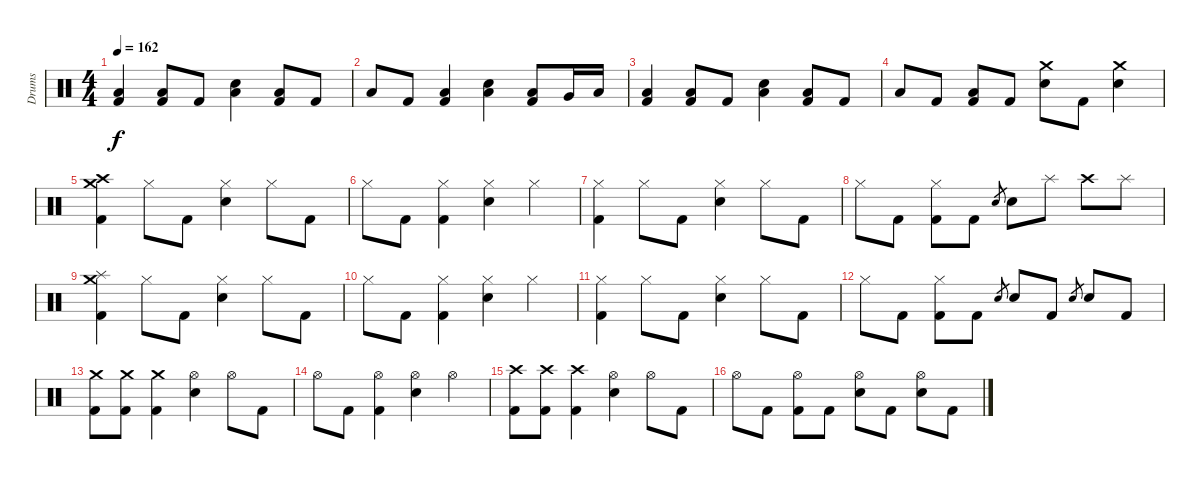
\track ("Drums" "Drums") {instrument percussion}
\staff {score}
\articulation defaults
\ts (4 4)
\tempo 162
\clef neutral
\ks c
("Low Floor Tom (hit)" "Kick (hit) 2").4{dy f} ("Low Floor Tom (hit)" "Kick (hit) 2").8 "Kick (hit) 2".8 ("Low Floor Tom (hit)" "Electric Snare (hit)").4 ("Low Floor Tom (hit)" "Kick (hit) 2").8 "Kick (hit) 2".8 |
"Low Floor Tom (hit)".8 "Kick (hit) 2".8 ("Low Floor Tom (hit)" "Kick (hit) 2").4 ("Low Floor Tom (hit)" "Electric Snare (hit)").4 ("Low Tom (hit)" "Kick (hit) 2").8 "Very Low Tom (hit)".16 "Low Floor Tom (hit)".16 |
("Low Floor Tom (hit)" "Kick (hit) 2").4 ("Low Floor Tom (hit)" "Kick (hit) 2").8 "Kick (hit) 2".8 ("Low Floor Tom (hit)" "Electric Snare (hit)").4 ("Low Floor Tom (hit)" "Kick (hit) 2").8 "Kick (hit) 2".8 |
"Low Floor Tom (hit)".8 "Kick (hit) 2".8 ("Low Floor Tom (hit)" "Kick (hit) 2").8 "Kick (hit) 2".8 ("Crash medium (hit)" "Electric Snare (hit)").8 "Kick (hit) 2".8 ("Crash medium (hit)" "Electric Snare (hit)").4 |
("Crash medium (hit)" "Crash high (hit)" "Kick (hit) 2").4 "Hi-Hat (closed)".8 "Kick (hit) 2".8 ("Hi-Hat (closed)" "Electric Snare (hit)").4 "Hi-Hat (closed)".8 "Kick (hit) 2".8 |
"Hi-Hat (closed)".8 "Kick (hit) 2".8 ("Hi-Hat (closed)" "Kick (hit) 2").4 ("Hi-Hat (closed)" "Electric Snare (hit)").4 "Hi-Hat (closed)".4 |
("Hi-Hat (closed)" "Kick (hit) 2").4 "Hi-Hat (closed)".8 "Kick (hit) 2".8 ("Hi-Hat (closed)" "Electric Snare (hit)").4 "Hi-Hat (closed)".8 "Kick (hit) 2".8 |
"Hi-Hat (closed)".8 "Kick (hit) 2".8 ("Hi-Hat (closed)" "Kick (hit) 2").8 "Kick (hit) 2".8 "Electric Snare (hit)".8{gr} "Electric Snare (hit)".8 "Splash (hit)".8 "Crash high (hit)".8 "Splash (hit)".8 |
("Crash medium (hit)" "Splash (hit)" "Kick (hit) 2").4 "Hi-Hat (closed)".8 "Kick (hit) 2".8 ("Hi-Hat (closed)" "Electric Snare (hit)").4 "Hi-Hat (closed)".8 "Kick (hit) 2".8 |
"Hi-Hat (closed)".8 "Kick (hit) 2".8 ("Hi-Hat (closed)" "Kick (hit) 2").4 ("Hi-Hat (closed)" "Electric Snare (hit)").4 "Hi-Hat (closed)".4 |
("Hi-Hat (closed)" "Kick (hit) 2").4 "Hi-Hat (closed)".8 "Kick (hit) 2".8 ("Hi-Hat (closed)" "Electric Snare (hit)").4 "Hi-Hat (closed)".8 "Kick (hit) 2".8 |
"Hi-Hat (closed)".8 "Kick (hit) 2".8 ("Hi-Hat (closed)" "Kick (hit) 2").8 "Kick (hit) 2".8 "Electric Snare (hit)".8{gr} "Electric Snare (hit)".8 "Kick (hit) 2".8 "Electric Snare (hit)".8{gr} "Electric Snare (hit)".8 "Kick (hit) 2".8 |
("Crash medium (hit)" "Kick (hit) 2").8 ("Crash medium (hit)" "Kick (hit) 2").8 ("Crash medium (hit)" "Kick (hit) 2").4 ("Hi-Hat (open)" "Electric Snare (hit)").4 "Hi-Hat (open)".8 "Kick (hit) 2".8 |
"Hi-Hat (open)".8 "Kick (hit) 2".8 ("Hi-Hat (open)" "Kick (hit) 2").4 ("Hi-Hat (open)" "Electric Snare (hit)").4 "Hi-Hat (open)".4 |
("Crash high (hit)" "Kick (hit) 2").8 ("Crash high (hit)" "Kick (hit) 2").8 ("Crash high (hit)" "Kick (hit) 2").4 ("Hi-Hat (open)" "Electric Snare (hit)").4 "Hi-Hat (open)".8 "Kick (hit) 2".8 |
"Hi-Hat (open)".8 "Kick (hit) 2".8 ("Hi-Hat (open)" "Kick (hit) 2").8 "Kick (hit) 2".8 ("Hi-Hat (open)" "Electric Snare (hit)").8 "Kick (hit) 2".8 ("Hi-Hat (open)" "Electric Snare (hit)").8 "Kick (hit) 2".8
